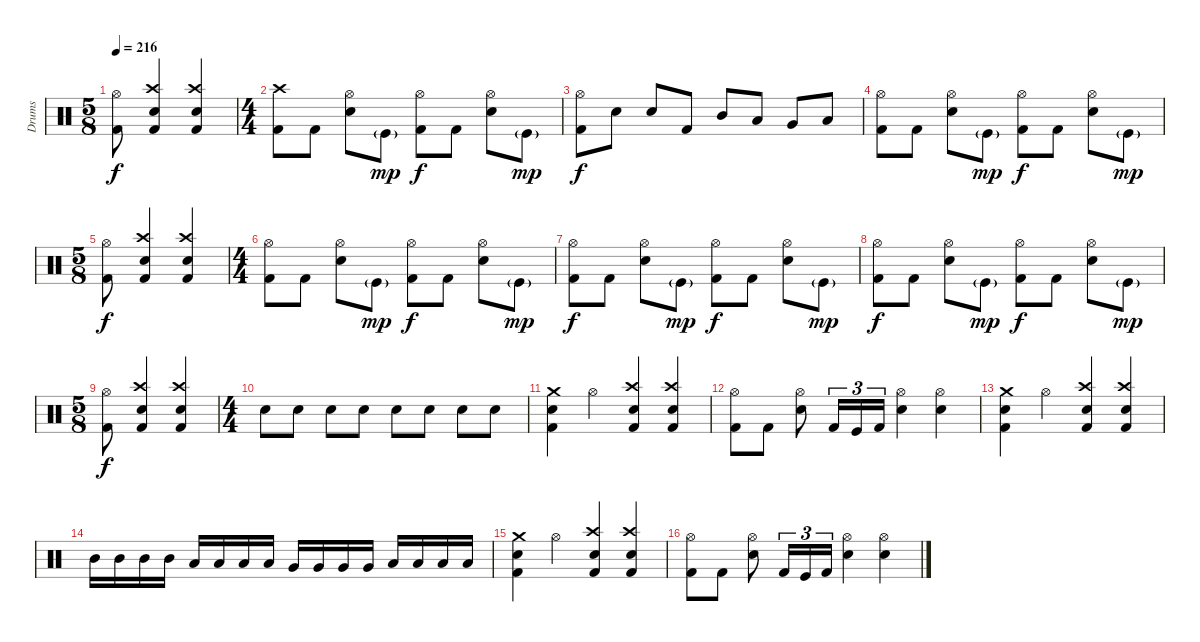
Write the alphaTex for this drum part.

\track ("Drums" "Drums") {instrument percussion}
\staff {score}
\articulation defaults
\ts (5 8)
\tempo 216
\clef neutral
\ks c
("Hi-Hat (open)" "Kick (hit) 2").8{dy f} ("Crash high (hit)" "Snare (hit) 2" "Kick (hit) 2").4 ("Crash high (hit)" "Snare (hit) 2" "Kick (hit) 2").4 |
\ts (4 4)
("Crash high (hit)" "Kick (hit) 2").8 "Kick (hit) 2".8 ("Hi-Hat (open)" "Snare (hit) 2").8 "Kick (hit)"{g}.8{dy mp} ("Hi-Hat (open)" "Kick (hit) 2").8{dy f} "Kick (hit) 2".8 ("Hi-Hat (open)" "Snare (hit) 2").8 "Kick (hit)"{g}.8{dy mp} |
("Hi-Hat (open)" "Kick (hit) 2").8{dy f} "Snare (hit) 2".8 "Snare (hit) 2".8 "Kick (hit) 2".8 "Mid Tom (hit)".8 "Low Tom (hit)".8 "Very Low Tom (hit)".8 "Low Floor Tom (hit)".8 |
("Hi-Hat (open)" "Kick (hit) 2").8 "Kick (hit) 2".8 ("Hi-Hat (open)" "Snare (hit) 2").8 "Kick (hit)"{g}.8{dy mp} ("Hi-Hat (open)" "Kick (hit) 2").8{dy f} "Kick (hit) 2".8 ("Hi-Hat (open)" "Snare (hit) 2").8 "Kick (hit)"{g}.8{dy mp} |
\ts (5 8)
("Hi-Hat (open)" "Kick (hit) 2").8{dy f} ("Crash high (hit)" "Snare (hit) 2" "Kick (hit) 2").4 ("Crash high (hit)" "Snare (hit) 2" "Kick (hit) 2").4 |
\ts (4 4)
("Hi-Hat (open)" "Kick (hit) 2").8 "Kick (hit) 2".8 ("Hi-Hat (open)" "Snare (hit) 2").8 "Kick (hit)"{g}.8{dy mp} ("Hi-Hat (open)" "Kick (hit) 2").8{dy f} "Kick (hit) 2".8 ("Hi-Hat (open)" "Snare (hit) 2").8 "Kick (hit)"{g}.8{dy mp} |
("Hi-Hat (open)" "Kick (hit) 2").8{dy f} "Kick (hit) 2".8 ("Hi-Hat (open)" "Snare (hit) 2").8 "Kick (hit)"{g}.8{dy mp} ("Hi-Hat (open)" "Kick (hit) 2").8{dy f} "Kick (hit) 2".8 ("Hi-Hat (open)" "Snare (hit) 2").8 "Kick (hit)"{g}.8{dy mp} |
("Hi-Hat (open)" "Kick (hit) 2").8{dy f} "Kick (hit) 2".8 ("Hi-Hat (open)" "Snare (hit) 2").8 "Kick (hit)"{g}.8{dy mp} ("Hi-Hat (open)" "Kick (hit) 2").8{dy f} "Kick (hit) 2".8 ("Hi-Hat (open)" "Snare (hit) 2").8 "Kick (hit)"{g}.8{dy mp} |
\ts (5 8)
("Hi-Hat (open)" "Kick (hit) 2").8{dy f} ("Crash high (hit)" "Snare (hit) 2" "Kick (hit) 2").4 ("Crash high (hit)" "Snare (hit) 2" "Kick (hit) 2").4 |
\ts (4 4)
"Electric Snare (hit)".8 "Electric Snare (hit)".8 "Electric Snare (hit)".8 "Electric Snare (hit)".8 "Electric Snare (hit)".8 "Electric Snare (hit)".8 "Electric Snare (hit)".8 "Electric Snare (hit)".8 |
("Crash medium (hit)" "Snare (hit) 2" "Kick (hit) 2").4 "Hi-Hat (open)".4 ("Crash high (hit)" "Snare (hit) 2" "Kick (hit) 2").4 ("Crash high (hit)" "Snare (hit) 2" "Kick (hit) 2").4 |
("Hi-Hat (open)" "Kick (hit) 2").8 "Kick (hit) 2".8 ("Hi-Hat (open)" "Snare (hit) 2").8 "Kick (hit) 2".16{tu (3 2)} "Kick (hit)".16{tu (3 2)} "Kick (hit) 2".16{tu (3 2)} ("Hi-Hat (open)" "Snare (hit) 2").4 ("Hi-Hat (open)" "Snare (hit) 2").4 |
("Crash medium (hit)" "Snare (hit) 2" "Kick (hit) 2").4 "Hi-Hat (open)".4 ("Crash high (hit)" "Snare (hit) 2" "Kick (hit) 2").4 ("Crash high (hit)" "Snare (hit) 2" "Kick (hit) 2").4 |
"Mid Tom (hit)".16 "Mid Tom (hit)".16 "Mid Tom (hit)".16 "Mid Tom (hit)".16 "Low Tom (hit)".16 "Low Tom (hit)".16 "Low Tom (hit)".16 "Low Tom (hit)".16 "Very Low Tom (hit)".16 "Very Low Tom (hit)".16 "Very Low Tom (hit)".16 "Very Low Tom (hit)".16 "Low Floor Tom (hit)".16 "Low Floor Tom (hit)".16 "Low Floor Tom (hit)".16 "Low Floor Tom (hit)".16 |
("Crash medium (hit)" "Snare (hit) 2" "Kick (hit) 2").4 "Hi-Hat (open)".4 ("Crash high (hit)" "Snare (hit) 2" "Kick (hit) 2").4 ("Crash high (hit)" "Snare (hit) 2" "Kick (hit) 2").4 |
("Hi-Hat (open)" "Kick (hit) 2").8 "Kick (hit) 2".8 ("Hi-Hat (open)" "Snare (hit) 2").8 "Kick (hit) 2".16{tu (3 2)} "Kick (hit)".16{tu (3 2)} "Kick (hit) 2".16{tu (3 2)} ("Hi-Hat (open)" "Snare (hit) 2").4 ("Hi-Hat (open)" "Snare (hit) 2").4
